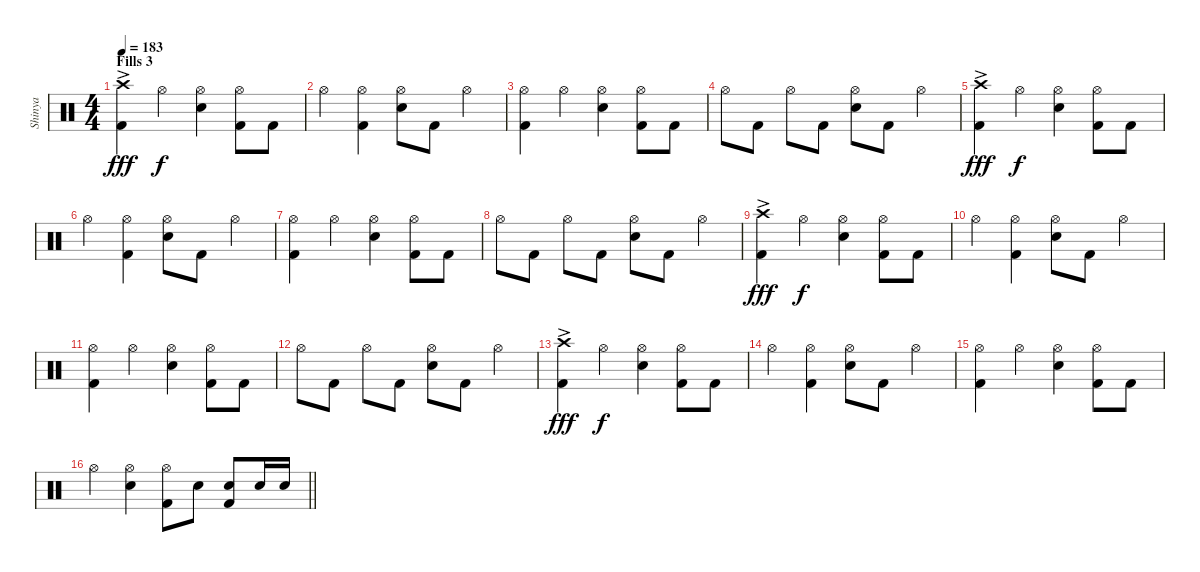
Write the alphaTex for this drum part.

\track ("Shinya" "Shinya") {instrument percussion}
\staff {score}
\articulation defaults
\ts (4 4)
\section ("" "Fills 3")
\tempo 183
\clef neutral
\ks c
("Crash high (hit)"{ac} "Kick (hit) 2").4{dy fff} "Hi-Hat (open)".4{dy f} ("Hi-Hat (open)" "Snare (hit) 2").4 ("Hi-Hat (open)" "Kick (hit) 2").8 "Kick (hit) 2".8 |
"Hi-Hat (open)".4 ("Hi-Hat (open)" "Kick (hit) 2").4 ("Hi-Hat (open)" "Snare (hit) 2").8 "Kick (hit) 2".8 "Hi-Hat (open)".4 |
("Hi-Hat (open)" "Kick (hit) 2").4 "Hi-Hat (open)".4 ("Hi-Hat (open)" "Snare (hit) 2").4 ("Hi-Hat (open)" "Kick (hit) 2").8 "Kick (hit) 2".8 |
"Hi-Hat (open)".8 "Kick (hit) 2".8 "Hi-Hat (open)".8 "Kick (hit) 2".8 ("Hi-Hat (open)" "Snare (hit) 2").8 "Kick (hit) 2".8 "Hi-Hat (open)".4 |
("Crash high (hit)"{ac} "Kick (hit) 2").4{dy fff} "Hi-Hat (open)".4{dy f} ("Hi-Hat (open)" "Snare (hit) 2").4 ("Hi-Hat (open)" "Kick (hit) 2").8 "Kick (hit) 2".8 |
"Hi-Hat (open)".4 ("Hi-Hat (open)" "Kick (hit) 2").4 ("Hi-Hat (open)" "Snare (hit) 2").8 "Kick (hit) 2".8 "Hi-Hat (open)".4 |
("Hi-Hat (open)" "Kick (hit) 2").4 "Hi-Hat (open)".4 ("Hi-Hat (open)" "Snare (hit) 2").4 ("Hi-Hat (open)" "Kick (hit) 2").8 "Kick (hit) 2".8 |
"Hi-Hat (open)".8 "Kick (hit) 2".8 "Hi-Hat (open)".8 "Kick (hit) 2".8 ("Hi-Hat (open)" "Snare (hit) 2").8 "Kick (hit) 2".8 "Hi-Hat (open)".4 |
("Crash high (hit)"{ac} "Kick (hit) 2").4{dy fff} "Hi-Hat (open)".4{dy f} ("Hi-Hat (open)" "Snare (hit) 2").4 ("Hi-Hat (open)" "Kick (hit) 2").8 "Kick (hit) 2".8 |
"Hi-Hat (open)".4 ("Hi-Hat (open)" "Kick (hit) 2").4 ("Hi-Hat (open)" "Snare (hit) 2").8 "Kick (hit) 2".8 "Hi-Hat (open)".4 |
("Hi-Hat (open)" "Kick (hit) 2").4 "Hi-Hat (open)".4 ("Hi-Hat (open)" "Snare (hit) 2").4 ("Hi-Hat (open)" "Kick (hit) 2").8 "Kick (hit) 2".8 |
"Hi-Hat (open)".8 "Kick (hit) 2".8 "Hi-Hat (open)".8 "Kick (hit) 2".8 ("Hi-Hat (open)" "Snare (hit) 2").8 "Kick (hit) 2".8 "Hi-Hat (open)".4 |
("Crash high (hit)"{ac} "Kick (hit) 2").4{dy fff} "Hi-Hat (open)".4{dy f} ("Hi-Hat (open)" "Snare (hit) 2").4 ("Hi-Hat (open)" "Kick (hit) 2").8 "Kick (hit) 2".8 |
"Hi-Hat (open)".4 ("Hi-Hat (open)" "Kick (hit) 2").4 ("Hi-Hat (open)" "Snare (hit) 2").8 "Kick (hit) 2".8 "Hi-Hat (open)".4 |
("Hi-Hat (open)" "Kick (hit) 2").4 "Hi-Hat (open)".4 ("Hi-Hat (open)" "Snare (hit) 2").4 ("Hi-Hat (open)" "Kick (hit) 2").8 "Kick (hit) 2".8 |
\barLineRight lightlight "Hi-Hat (open)".4
("Hi-Hat (open)" "Snare (hit) 2").4 ("Hi-Hat (open)" "Kick (hit) 2").8 "Snare (hit) 2".8 ("Snare (hit) 2" "Kick (hit) 2").8 "Snare (hit) 2".16 "Snare (hit) 2".16
